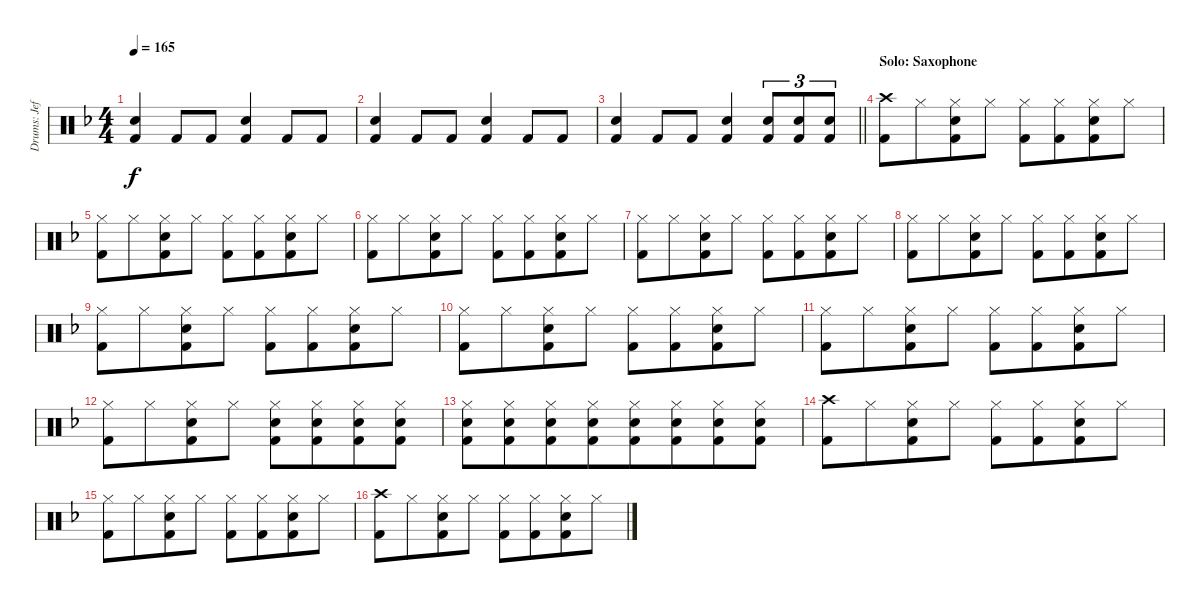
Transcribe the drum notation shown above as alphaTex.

\track ("Drums: Jeff" "Drums: Jef") {instrument percussion}
\staff {score}
\articulation defaults
\ts (4 4)
\tempo 165
\clef neutral
\ks f
("Snare (hit) 2" "Kick (hit) 2").4{dy f} "Kick (hit) 2".8 "Kick (hit) 2".8 ("Snare (hit) 2" "Kick (hit) 2").4 "Kick (hit) 2".8 "Kick (hit) 2".8 |
("Snare (hit) 2" "Kick (hit) 2").4 "Kick (hit) 2".8 "Kick (hit) 2".8 ("Snare (hit) 2" "Kick (hit) 2").4 "Kick (hit) 2".8 "Kick (hit) 2".8 |
\barLineRight lightlight
("Snare (hit) 2" "Kick (hit) 2").4 "Kick (hit) 2".8 "Kick (hit) 2".8 ("Snare (hit) 2" "Kick (hit) 2").4 ("Snare (hit) 2" "Kick (hit) 2").8{tu (3 2)} ("Snare (hit) 2" "Kick (hit) 2").8{tu (3 2)} ("Snare (hit) 2" "Kick (hit) 2").8{tu (3 2)} |
\section ("" "Solo: Saxophone")
("Crash high (hit)" "Kick (hit) 2").8 "Hi-Hat (closed)".8{beam merge} ("Hi-Hat (closed)" "Snare (hit) 2" "Kick (hit) 2").8 "Hi-Hat (closed)".8{beam split} ("Hi-Hat (closed)" "Kick (hit) 2").8 ("Hi-Hat (closed)" "Kick (hit) 2").8{beam merge} ("Hi-Hat (closed)" "Snare (hit) 2" "Kick (hit) 2").8 "Hi-Hat (closed)".8 |
("Hi-Hat (closed)" "Kick (hit) 2").8 "Hi-Hat (closed)".8{beam merge} ("Hi-Hat (closed)" "Snare (hit) 2" "Kick (hit) 2").8 "Hi-Hat (closed)".8{beam split} ("Hi-Hat (closed)" "Kick (hit) 2").8 ("Hi-Hat (closed)" "Kick (hit) 2").8{beam merge} ("Hi-Hat (closed)" "Snare (hit) 2" "Kick (hit) 2").8 "Hi-Hat (closed)".8 |
("Hi-Hat (closed)" "Kick (hit) 2").8 "Hi-Hat (closed)".8{beam merge} ("Hi-Hat (closed)" "Snare (hit) 2" "Kick (hit) 2").8 "Hi-Hat (closed)".8{beam split} ("Hi-Hat (closed)" "Kick (hit) 2").8 ("Hi-Hat (closed)" "Kick (hit) 2").8{beam merge} ("Hi-Hat (closed)" "Snare (hit) 2" "Kick (hit) 2").8 "Hi-Hat (closed)".8 |
("Hi-Hat (closed)" "Kick (hit) 2").8 "Hi-Hat (closed)".8{beam merge} ("Hi-Hat (closed)" "Snare (hit) 2" "Kick (hit) 2").8 "Hi-Hat (closed)".8{beam split} ("Hi-Hat (closed)" "Kick (hit) 2").8 ("Hi-Hat (closed)" "Kick (hit) 2").8{beam merge} ("Hi-Hat (closed)" "Snare (hit) 2" "Kick (hit) 2").8 "Hi-Hat (closed)".8 |
("Hi-Hat (closed)" "Kick (hit) 2").8 "Hi-Hat (closed)".8{beam merge} ("Hi-Hat (closed)" "Snare (hit) 2" "Kick (hit) 2").8 "Hi-Hat (closed)".8{beam split} ("Hi-Hat (closed)" "Kick (hit) 2").8 ("Hi-Hat (closed)" "Kick (hit) 2").8{beam merge} ("Hi-Hat (closed)" "Snare (hit) 2" "Kick (hit) 2").8 "Hi-Hat (closed)".8 |
("Hi-Hat (closed)" "Kick (hit) 2").8 "Hi-Hat (closed)".8{beam merge} ("Hi-Hat (closed)" "Snare (hit) 2" "Kick (hit) 2").8 "Hi-Hat (closed)".8{beam split} ("Hi-Hat (closed)" "Kick (hit) 2").8 ("Hi-Hat (closed)" "Kick (hit) 2").8{beam merge} ("Hi-Hat (closed)" "Snare (hit) 2" "Kick (hit) 2").8 "Hi-Hat (closed)".8 |
("Hi-Hat (closed)" "Kick (hit) 2").8 "Hi-Hat (closed)".8{beam merge} ("Hi-Hat (closed)" "Snare (hit) 2" "Kick (hit) 2").8 "Hi-Hat (closed)".8{beam split} ("Hi-Hat (closed)" "Kick (hit) 2").8 ("Hi-Hat (closed)" "Kick (hit) 2").8{beam merge} ("Hi-Hat (closed)" "Snare (hit) 2" "Kick (hit) 2").8 "Hi-Hat (closed)".8 |
("Hi-Hat (closed)" "Kick (hit) 2").8 "Hi-Hat (closed)".8{beam merge} ("Hi-Hat (closed)" "Snare (hit) 2" "Kick (hit) 2").8 "Hi-Hat (closed)".8{beam split} ("Hi-Hat (closed)" "Kick (hit) 2").8 ("Hi-Hat (closed)" "Kick (hit) 2").8{beam merge} ("Hi-Hat (closed)" "Snare (hit) 2" "Kick (hit) 2").8 "Hi-Hat (closed)".8 |
("Hi-Hat (closed)" "Kick (hit) 2").8 "Hi-Hat (closed)".8{beam merge} ("Hi-Hat (closed)" "Snare (hit) 2" "Kick (hit) 2").8 "Hi-Hat (closed)".8{beam split} ("Hi-Hat (closed)" "Snare (hit) 2" "Kick (hit) 2").8{beam merge} ("Hi-Hat (closed)" "Snare (hit) 2" "Kick (hit) 2").8{beam merge} ("Hi-Hat (closed)" "Snare (hit) 2" "Kick (hit) 2").8{beam merge} ("Hi-Hat (closed)" "Snare (hit) 2" "Kick (hit) 2").8 |
("Hi-Hat (closed)" "Snare (hit) 2" "Kick (hit) 2").8{beam merge} ("Hi-Hat (closed)" "Snare (hit) 2" "Kick (hit) 2").8{beam merge} ("Hi-Hat (closed)" "Snare (hit) 2" "Kick (hit) 2").8{beam merge} ("Hi-Hat (closed)" "Snare (hit) 2" "Kick (hit) 2").8{beam merge} ("Hi-Hat (closed)" "Snare (hit) 2" "Kick (hit) 2").8{beam merge} ("Hi-Hat (closed)" "Snare (hit) 2" "Kick (hit) 2").8{beam merge} ("Hi-Hat (closed)" "Snare (hit) 2" "Kick (hit) 2").8{beam merge} ("Hi-Hat (closed)" "Snare (hit) 2" "Kick (hit) 2").8 |
("Crash high (hit)" "Kick (hit) 2").8 "Hi-Hat (closed)".8{beam merge} ("Hi-Hat (closed)" "Snare (hit) 2" "Kick (hit) 2").8 "Hi-Hat (closed)".8{beam split} ("Hi-Hat (closed)" "Kick (hit) 2").8 ("Hi-Hat (closed)" "Kick (hit) 2").8{beam merge} ("Hi-Hat (closed)" "Snare (hit) 2" "Kick (hit) 2").8 "Hi-Hat (closed)".8 |
("Hi-Hat (closed)" "Kick (hit) 2").8 "Hi-Hat (closed)".8{beam merge} ("Hi-Hat (closed)" "Snare (hit) 2" "Kick (hit) 2").8 "Hi-Hat (closed)".8{beam split} ("Hi-Hat (closed)" "Kick (hit) 2").8 ("Hi-Hat (closed)" "Kick (hit) 2").8{beam merge} ("Hi-Hat (closed)" "Snare (hit) 2" "Kick (hit) 2").8 "Hi-Hat (closed)".8 |
("Crash high (hit)" "Kick (hit) 2").8 "Hi-Hat (closed)".8{beam merge} ("Hi-Hat (closed)" "Snare (hit) 2" "Kick (hit) 2").8 "Hi-Hat (closed)".8{beam split} ("Hi-Hat (closed)" "Kick (hit) 2").8 ("Hi-Hat (closed)" "Kick (hit) 2").8{beam merge} ("Hi-Hat (closed)" "Snare (hit) 2" "Kick (hit) 2").8 "Hi-Hat (closed)".8
